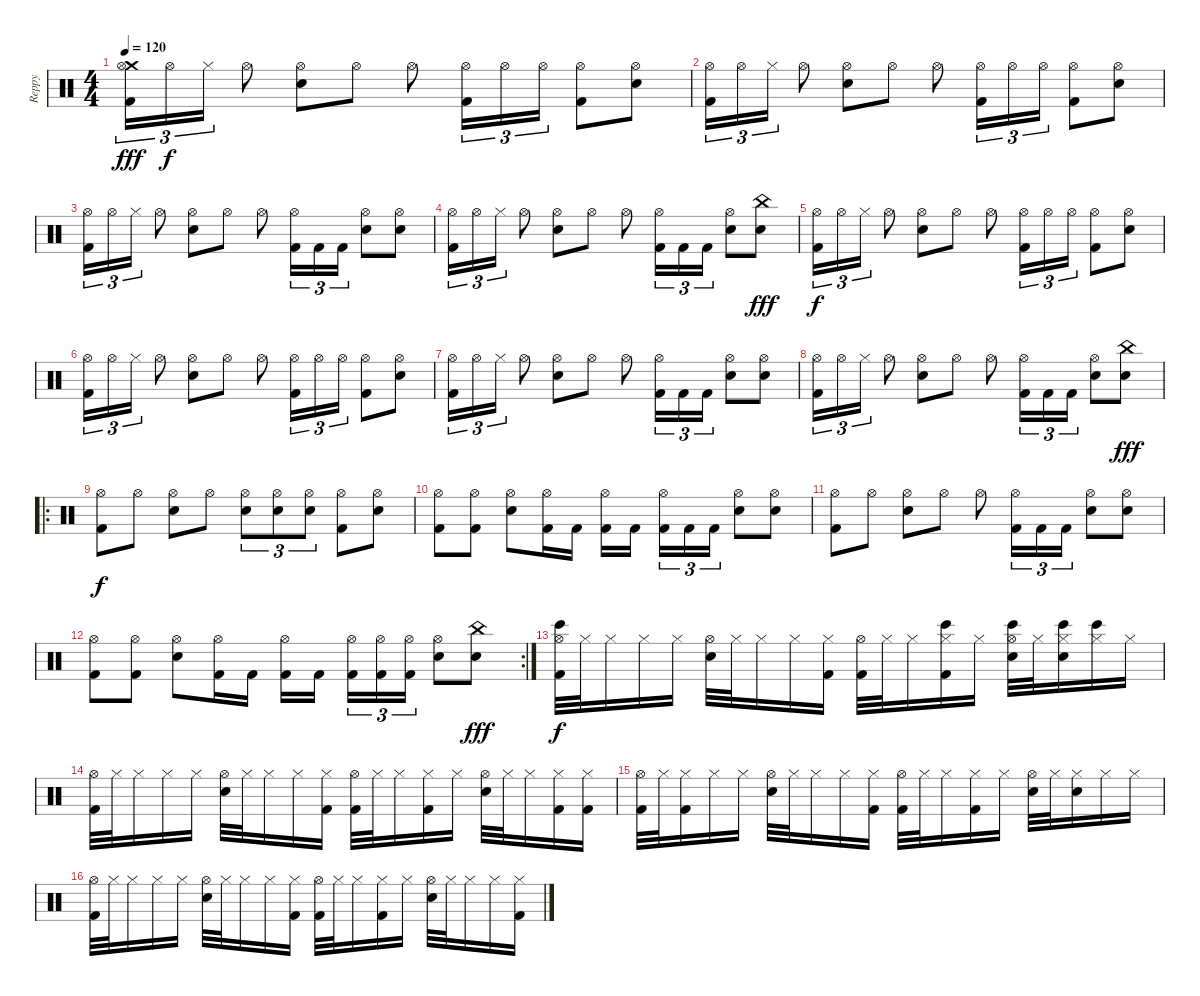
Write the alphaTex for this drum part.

\track ("Reppy" "Reppy") {instrument percussion}
\staff {score}
\articulation defaults
\ts (4 4)
\tempo 120
\clef neutral
\ks c
("Crash medium (hit)" "Hi-Hat (open)" "Kick (hit) 2").16{tu (3 2) dy fff} "Hi-Hat (open)".16{tu (3 2) dy f} "Hi-Hat (closed)".16{tu (3 2)} "Hi-Hat (open)".8 ("Hi-Hat (open)" "Electric Snare (hit)").8 "Hi-Hat (open)".8 "Hi-Hat (open)".8 ("Hi-Hat (open)" "Kick (hit) 2").16{tu (3 2)} "Hi-Hat (open)".16{tu (3 2)} "Hi-Hat (open)".16{tu (3 2)} ("Hi-Hat (open)" "Kick (hit) 2").8 ("Hi-Hat (open)" "Electric Snare (hit)").8 |
("Hi-Hat (open)" "Kick (hit) 2").16{tu (3 2)} "Hi-Hat (open)".16{tu (3 2)} "Hi-Hat (closed)".16{tu (3 2)} "Hi-Hat (open)".8 ("Hi-Hat (open)" "Electric Snare (hit)").8 "Hi-Hat (open)".8 "Hi-Hat (open)".8 ("Hi-Hat (open)" "Kick (hit) 2").16{tu (3 2)} "Hi-Hat (open)".16{tu (3 2)} "Hi-Hat (open)".16{tu (3 2)} ("Hi-Hat (open)" "Kick (hit) 2").8 ("Hi-Hat (open)" "Electric Snare (hit)").8 |
("Hi-Hat (open)" "Kick (hit) 2").16{tu (3 2)} "Hi-Hat (open)".16{tu (3 2)} "Hi-Hat (closed)".16{tu (3 2)} "Hi-Hat (open)".8 ("Hi-Hat (open)" "Electric Snare (hit)").8 "Hi-Hat (open)".8 "Hi-Hat (open)".8 ("Hi-Hat (open)" "Kick (hit) 2").16{tu (3 2)} "Kick (hit) 2".16{tu (3 2)} "Kick (hit) 2".16{tu (3 2)} ("Hi-Hat (open)" "Electric Snare (hit)").8 ("Hi-Hat (open)" "Electric Snare (hit)").8 |
("Hi-Hat (open)" "Kick (hit) 2").16{tu (3 2)} "Hi-Hat (open)".16{tu (3 2)} "Hi-Hat (closed)".16{tu (3 2)} "Hi-Hat (open)".8 ("Hi-Hat (open)" "Electric Snare (hit)").8 "Hi-Hat (open)".8 "Hi-Hat (open)".8 ("Hi-Hat (open)" "Kick (hit) 2").16{tu (3 2)} "Kick (hit) 2".16{tu (3 2)} "Kick (hit) 2".16{tu (3 2)} ("Hi-Hat (open)" "Electric Snare (hit)").8 ("China (hit)" "Electric Snare (hit)").8{dy fff} |
("Hi-Hat (open)" "Kick (hit) 2").16{tu (3 2) dy f} "Hi-Hat (open)".16{tu (3 2)} "Hi-Hat (closed)".16{tu (3 2)} "Hi-Hat (open)".8 ("Hi-Hat (open)" "Electric Snare (hit)").8 "Hi-Hat (open)".8 "Hi-Hat (open)".8 ("Hi-Hat (open)" "Kick (hit) 2").16{tu (3 2)} "Hi-Hat (open)".16{tu (3 2)} "Hi-Hat (open)".16{tu (3 2)} ("Hi-Hat (open)" "Kick (hit) 2").8 ("Hi-Hat (open)" "Electric Snare (hit)").8 |
("Hi-Hat (open)" "Kick (hit) 2").16{tu (3 2)} "Hi-Hat (open)".16{tu (3 2)} "Hi-Hat (closed)".16{tu (3 2)} "Hi-Hat (open)".8 ("Hi-Hat (open)" "Electric Snare (hit)").8 "Hi-Hat (open)".8 "Hi-Hat (open)".8 ("Hi-Hat (open)" "Kick (hit) 2").16{tu (3 2)} "Hi-Hat (open)".16{tu (3 2)} "Hi-Hat (open)".16{tu (3 2)} ("Hi-Hat (open)" "Kick (hit) 2").8 ("Hi-Hat (open)" "Electric Snare (hit)").8 |
("Hi-Hat (open)" "Kick (hit) 2").16{tu (3 2)} "Hi-Hat (open)".16{tu (3 2)} "Hi-Hat (closed)".16{tu (3 2)} "Hi-Hat (open)".8 ("Hi-Hat (open)" "Electric Snare (hit)").8 "Hi-Hat (open)".8 "Hi-Hat (open)".8 ("Hi-Hat (open)" "Kick (hit) 2").16{tu (3 2)} "Kick (hit) 2".16{tu (3 2)} "Kick (hit) 2".16{tu (3 2)} ("Hi-Hat (open)" "Electric Snare (hit)").8 ("Hi-Hat (open)" "Electric Snare (hit)").8 |
("Hi-Hat (open)" "Kick (hit) 2").16{tu (3 2)} "Hi-Hat (open)".16{tu (3 2)} "Hi-Hat (closed)".16{tu (3 2)} "Hi-Hat (open)".8 ("Hi-Hat (open)" "Electric Snare (hit)").8 "Hi-Hat (open)".8 "Hi-Hat (open)".8 ("Hi-Hat (open)" "Kick (hit) 2").16{tu (3 2)} "Kick (hit) 2".16{tu (3 2)} "Kick (hit) 2".16{tu (3 2)} ("Hi-Hat (open)" "Electric Snare (hit)").8 ("China (hit)" "Electric Snare (hit)").8{dy fff} |
\ro
("Hi-Hat (open)" "Kick (hit) 2").8{dy f} "Hi-Hat (open)".8 ("Hi-Hat (open)" "Electric Snare (hit)").8 "Hi-Hat (open)".8 ("Hi-Hat (open)" "Electric Snare (hit)").8{tu (3 2)} ("Hi-Hat (open)" "Electric Snare (hit)").8{tu (3 2)} ("Hi-Hat (open)" "Electric Snare (hit)").8{tu (3 2)} ("Hi-Hat (open)" "Kick (hit) 2").8 ("Hi-Hat (open)" "Electric Snare (hit)").8 |
("Hi-Hat (open)" "Kick (hit) 2").8 ("Hi-Hat (open)" "Kick (hit) 2").8 ("Hi-Hat (open)" "Electric Snare (hit)").8 ("Hi-Hat (open)" "Kick (hit) 2").16 "Kick (hit) 2".16 ("Hi-Hat (open)" "Kick (hit) 2").16 "Kick (hit) 2".16 ("Hi-Hat (open)" "Kick (hit) 2").16{tu (3 2)} "Kick (hit) 2".16{tu (3 2)} "Kick (hit) 2".16{tu (3 2)} ("Hi-Hat (open)" "Electric Snare (hit)").8 ("Hi-Hat (open)" "Electric Snare (hit)").8 |
("Hi-Hat (open)" "Kick (hit) 2").8 "Hi-Hat (open)".8 ("Hi-Hat (open)" "Electric Snare (hit)").8 "Hi-Hat (open)".8 "Hi-Hat (open)".8 ("Hi-Hat (open)" "Kick (hit) 2").16{tu (3 2)} "Kick (hit) 2".16{tu (3 2)} "Kick (hit) 2".16{tu (3 2)} ("Hi-Hat (open)" "Electric Snare (hit)").8 ("Hi-Hat (open)" "Electric Snare (hit)").8 |
\rc 2
("Hi-Hat (open)" "Kick (hit) 2").8 ("Hi-Hat (open)" "Kick (hit) 2").8 ("Hi-Hat (open)" "Electric Snare (hit)").8 ("Hi-Hat (open)" "Kick (hit) 2").16 "Kick (hit) 2".16 ("Hi-Hat (open)" "Kick (hit) 2").16 "Kick (hit) 2".16 ("Hi-Hat (open)" "Kick (hit) 2").16{tu (3 2)} ("Hi-Hat (open)" "Kick (hit) 2").16{tu (3 2)} ("Hi-Hat (open)" "Kick (hit) 2").16{tu (3 2)} ("Hi-Hat (open)" "Electric Snare (hit)").8 ("China (hit)" "Electric Snare (hit)").8{dy fff} |
("Bongo High (hit)" "Hi-Hat (open)" "Kick (hit) 2").32{dy f} "Hi-Hat (closed)".32 "Hi-Hat (closed)".16 "Hi-Hat (closed)".16 "Hi-Hat (closed)".16 ("Hi-Hat (open)" "Electric Snare (hit)").32 "Hi-Hat (closed)".32 "Hi-Hat (closed)".16 "Hi-Hat (closed)".16 ("Hi-Hat (closed)" "Kick (hit) 2").16 ("Hi-Hat (open)" "Kick (hit) 2").32 "Hi-Hat (closed)".32 "Hi-Hat (closed)".16 ("Bongo High (hit)" "Hi-Hat (closed)" "Kick (hit) 2").16 "Hi-Hat (closed)".16 ("Bongo High (hit)" "Hi-Hat (open)" "Electric Snare (hit)").32 "Hi-Hat (closed)".32 ("Bongo High (hit)" "Hi-Hat (closed)" "Electric Snare (hit)").16 ("Bongo High (hit)" "Hi-Hat (closed)").16 "Hi-Hat (closed)".16 |
("Hi-Hat (open)" "Kick (hit) 2").32 "Hi-Hat (closed)".32 "Hi-Hat (closed)".16 "Hi-Hat (closed)".16 "Hi-Hat (closed)".16 ("Hi-Hat (open)" "Electric Snare (hit)").32 "Hi-Hat (closed)".32 "Hi-Hat (closed)".16 "Hi-Hat (closed)".16 ("Hi-Hat (closed)" "Kick (hit) 2").16 ("Hi-Hat (open)" "Kick (hit) 2").32 "Hi-Hat (closed)".32 "Hi-Hat (closed)".16 ("Hi-Hat (closed)" "Kick (hit) 2").16 "Hi-Hat (closed)".16 ("Hi-Hat (open)" "Electric Snare (hit)").32 "Hi-Hat (closed)".32 "Hi-Hat (closed)".16 ("Hi-Hat (closed)" "Kick (hit) 2").16 ("Hi-Hat (closed)" "Kick (hit) 2").16 |
("Hi-Hat (open)" "Kick (hit) 2").32 "Hi-Hat (closed)".32 ("Hi-Hat (closed)" "Kick (hit) 2").16 "Hi-Hat (closed)".16 "Hi-Hat (closed)".16 ("Hi-Hat (open)" "Electric Snare (hit)").32 "Hi-Hat (closed)".32 "Hi-Hat (closed)".16 "Hi-Hat (closed)".16 ("Hi-Hat (closed)" "Kick (hit) 2").16 ("Hi-Hat (open)" "Kick (hit) 2").32 "Hi-Hat (closed)".32 "Hi-Hat (closed)".16 ("Hi-Hat (closed)" "Kick (hit) 2").16 "Hi-Hat (closed)".16 ("Hi-Hat (open)" "Electric Snare (hit)").32 "Hi-Hat (closed)".32 ("Hi-Hat (closed)" "Electric Snare (hit)").16 "Hi-Hat (closed)".16 "Hi-Hat (closed)".16 |
("Hi-Hat (open)" "Kick (hit) 2").32 "Hi-Hat (closed)".32 "Hi-Hat (closed)".16 "Hi-Hat (closed)".16 "Hi-Hat (closed)".16 ("Hi-Hat (open)" "Electric Snare (hit)").32 "Hi-Hat (closed)".32 "Hi-Hat (closed)".16 "Hi-Hat (closed)".16 ("Hi-Hat (closed)" "Kick (hit) 2").16 ("Hi-Hat (open)" "Kick (hit) 2").32 "Hi-Hat (closed)".32 "Hi-Hat (closed)".16 ("Hi-Hat (closed)" "Kick (hit) 2").16 "Hi-Hat (closed)".16 ("Hi-Hat (open)" "Electric Snare (hit)").32 "Hi-Hat (closed)".32 "Hi-Hat (closed)".16 "Hi-Hat (closed)".16 ("Hi-Hat (closed)" "Kick (hit) 2").16
